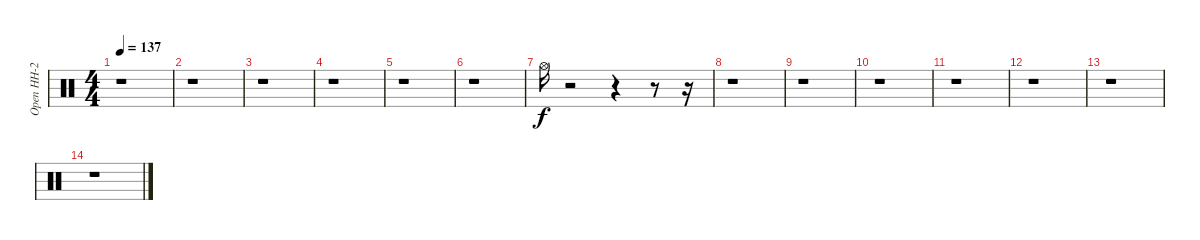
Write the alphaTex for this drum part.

\track ("Open HH-2" "Open HH-2") {instrument percussion}
\staff {score}
\articulation defaults
\ts (4 4)
\tempo 137
\clef neutral
\ks c
r.1{dy f} |
r.1 |
r.1 |
r.1 |
r.1 |
r.1 |
"Hi-Hat (open)".16 r.2 r.4 r.8 r.16 |
r.1 |
r.1 |
r.1 |
r.1 |
r.1 |
r.1 |
r.1
